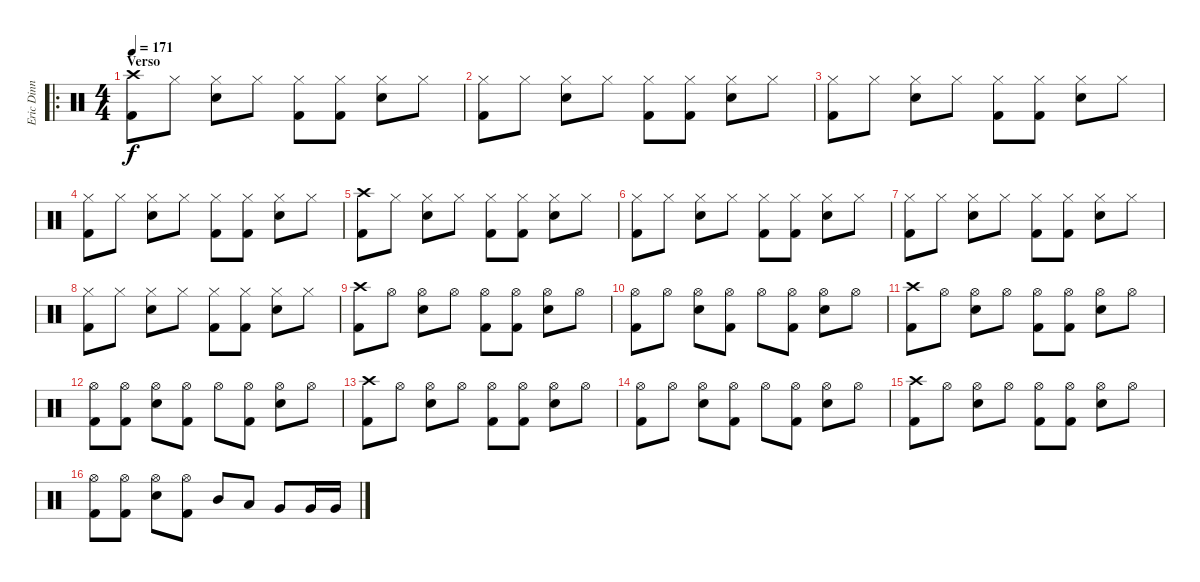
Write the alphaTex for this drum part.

\track ("Eric Dinn" "Eric Dinn") {instrument percussion}
\staff {score}
\articulation defaults
\ro
\ts (4 4)
\section ("" "Verso")
\tempo 171
\clef neutral
\ks c
("Crash high (hit)" "Kick (hit) 2").8{dy f} "Hi-Hat (closed)".8 ("Hi-Hat (closed)" "Snare (hit) 2").8 "Hi-Hat (closed)".8 ("Hi-Hat (closed)" "Kick (hit) 2").8 ("Hi-Hat (closed)" "Kick (hit) 2").8 ("Hi-Hat (closed)" "Snare (hit) 2").8 "Hi-Hat (closed)".8 |
("Hi-Hat (closed)" "Kick (hit) 2").8 "Hi-Hat (closed)".8 ("Hi-Hat (closed)" "Snare (hit) 2").8 "Hi-Hat (closed)".8 ("Hi-Hat (closed)" "Kick (hit) 2").8 ("Hi-Hat (closed)" "Kick (hit) 2").8 ("Hi-Hat (closed)" "Snare (hit) 2").8 "Hi-Hat (closed)".8 |
("Hi-Hat (closed)" "Kick (hit) 2").8 "Hi-Hat (closed)".8 ("Hi-Hat (closed)" "Snare (hit) 2").8 "Hi-Hat (closed)".8 ("Hi-Hat (closed)" "Kick (hit) 2").8 ("Hi-Hat (closed)" "Kick (hit) 2").8 ("Hi-Hat (closed)" "Snare (hit) 2").8 "Hi-Hat (closed)".8 |
("Hi-Hat (closed)" "Kick (hit) 2").8 "Hi-Hat (closed)".8 ("Hi-Hat (closed)" "Snare (hit) 2").8 "Hi-Hat (closed)".8 ("Hi-Hat (closed)" "Kick (hit) 2").8 ("Hi-Hat (closed)" "Kick (hit) 2").8 ("Hi-Hat (closed)" "Snare (hit) 2").8 "Hi-Hat (closed)".8 |
("Crash high (hit)" "Kick (hit) 2").8 "Hi-Hat (closed)".8 ("Hi-Hat (closed)" "Snare (hit) 2").8 "Hi-Hat (closed)".8 ("Hi-Hat (closed)" "Kick (hit) 2").8 ("Hi-Hat (closed)" "Kick (hit) 2").8 ("Hi-Hat (closed)" "Snare (hit) 2").8 "Hi-Hat (closed)".8 |
("Hi-Hat (closed)" "Kick (hit) 2").8 "Hi-Hat (closed)".8 ("Hi-Hat (closed)" "Snare (hit) 2").8 "Hi-Hat (closed)".8 ("Hi-Hat (closed)" "Kick (hit) 2").8 ("Hi-Hat (closed)" "Kick (hit) 2").8 ("Hi-Hat (closed)" "Snare (hit) 2").8 "Hi-Hat (closed)".8 |
("Hi-Hat (closed)" "Kick (hit) 2").8 "Hi-Hat (closed)".8 ("Hi-Hat (closed)" "Snare (hit) 2").8 "Hi-Hat (closed)".8 ("Hi-Hat (closed)" "Kick (hit) 2").8 ("Hi-Hat (closed)" "Kick (hit) 2").8 ("Hi-Hat (closed)" "Snare (hit) 2").8 "Hi-Hat (closed)".8 |
("Hi-Hat (closed)" "Kick (hit) 2").8 "Hi-Hat (closed)".8 ("Hi-Hat (closed)" "Snare (hit) 2").8 "Hi-Hat (closed)".8 ("Hi-Hat (closed)" "Kick (hit) 2").8 ("Hi-Hat (closed)" "Kick (hit) 2").8 ("Hi-Hat (closed)" "Snare (hit) 2").8 "Hi-Hat (closed)".8 |
("Crash high (hit)" "Kick (hit) 2").8 "Hi-Hat (open)".8 ("Hi-Hat (open)" "Snare (hit) 2").8 "Hi-Hat (open)".8 ("Hi-Hat (open)" "Kick (hit) 2").8 ("Hi-Hat (open)" "Kick (hit) 2").8 ("Hi-Hat (open)" "Snare (hit) 2").8 "Hi-Hat (open)".8 |
("Hi-Hat (open)" "Kick (hit) 2").8 "Hi-Hat (open)".8 ("Hi-Hat (open)" "Snare (hit) 2").8 ("Hi-Hat (open)" "Kick (hit) 2").8 "Hi-Hat (open)".8 ("Hi-Hat (open)" "Kick (hit) 2").8 ("Hi-Hat (open)" "Snare (hit) 2").8 "Hi-Hat (open)".8 |
("Crash high (hit)" "Kick (hit) 2").8 "Hi-Hat (open)".8 ("Hi-Hat (open)" "Snare (hit) 2").8 "Hi-Hat (open)".8 ("Hi-Hat (open)" "Kick (hit) 2").8 ("Hi-Hat (open)" "Kick (hit) 2").8 ("Hi-Hat (open)" "Snare (hit) 2").8 "Hi-Hat (open)".8 |
("Hi-Hat (open)" "Kick (hit) 2").8 ("Hi-Hat (open)" "Kick (hit) 2").8 ("Hi-Hat (open)" "Snare (hit) 2").8 ("Hi-Hat (open)" "Kick (hit) 2").8 "Hi-Hat (open)".8 ("Hi-Hat (open)" "Kick (hit) 2").8 ("Hi-Hat (open)" "Snare (hit) 2").8 "Hi-Hat (open)".8 |
("Crash high (hit)" "Kick (hit) 2").8 "Hi-Hat (open)".8 ("Hi-Hat (open)" "Snare (hit) 2").8 "Hi-Hat (open)".8 ("Hi-Hat (open)" "Kick (hit) 2").8 ("Hi-Hat (open)" "Kick (hit) 2").8 ("Hi-Hat (open)" "Snare (hit) 2").8 "Hi-Hat (open)".8 |
("Hi-Hat (open)" "Kick (hit) 2").8 "Hi-Hat (open)".8 ("Hi-Hat (open)" "Snare (hit) 2").8 ("Hi-Hat (open)" "Kick (hit) 2").8 "Hi-Hat (open)".8 ("Hi-Hat (open)" "Kick (hit) 2").8 ("Hi-Hat (open)" "Snare (hit) 2").8 "Hi-Hat (open)".8 |
("Crash high (hit)" "Kick (hit) 2").8 "Hi-Hat (open)".8 ("Hi-Hat (open)" "Snare (hit) 2").8 "Hi-Hat (open)".8 ("Hi-Hat (open)" "Kick (hit) 2").8 ("Hi-Hat (open)" "Kick (hit) 2").8 ("Hi-Hat (open)" "Snare (hit) 2").8 "Hi-Hat (open)".8 |
("Hi-Hat (open)" "Kick (hit) 2").8 ("Hi-Hat (open)" "Kick (hit) 2").8 ("Hi-Hat (open)" "Snare (hit) 2").8 ("Hi-Hat (open)" "Kick (hit) 2").8 "Mid Tom (hit)".8 "Low Tom (hit)".8 "Very Low Tom (hit)".8 "Very Low Tom (hit)".16 "Very Low Tom (hit)".16
